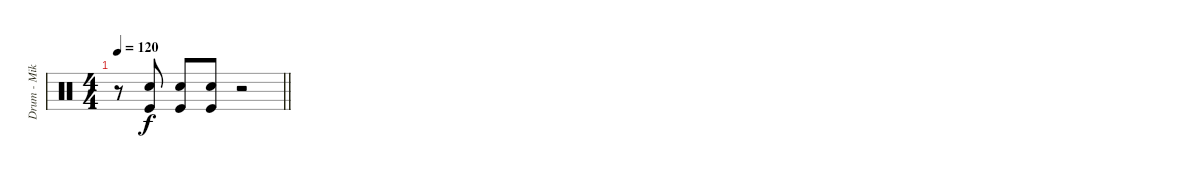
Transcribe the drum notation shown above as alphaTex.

\track ("Drum - Mike Collins" "Drum - Mik") {instrument percussion}
\staff {score}
\articulation defaults
\ts (4 4)
\tempo 120
\clef neutral
\barLineRight lightlight
\ks c
r.8{dy f} ("Electric Snare (hit)" "Kick (hit)").8 ("Electric Snare (hit)" "Kick (hit)").8 ("Electric Snare (hit)" "Kick (hit)").8 r.2
